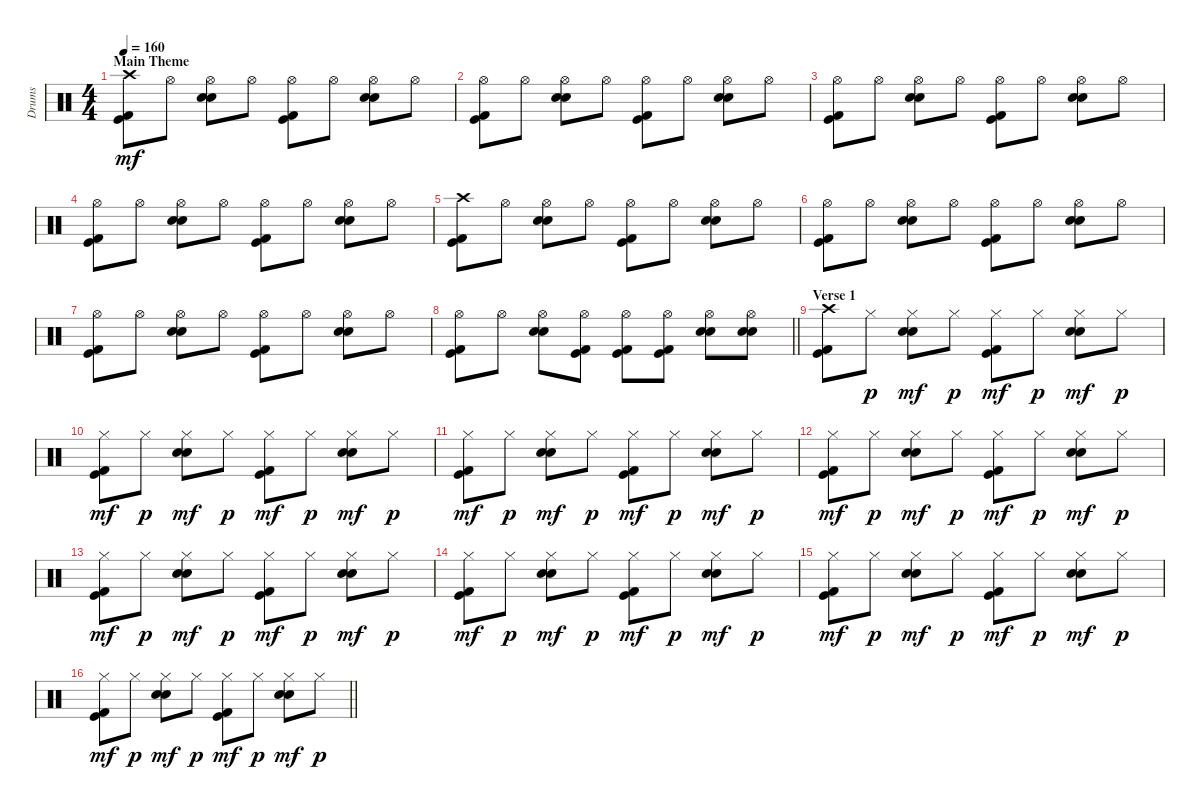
\track ("Drums" "Drums") {instrument percussion}
\staff {score}
\articulation defaults
\ts (4 4)
\section ("" "Main Theme")
\tempo 160
\clef neutral
\ks c
("Crash high (hit)" "Kick (hit) 2" "Kick (hit)").8{dy mf} "Hi-Hat (open)".8 ("Hi-Hat (open)" "Snare (hit) 2" "Electric Snare (hit)").8 "Hi-Hat (open)".8 ("Hi-Hat (open)" "Kick (hit) 2" "Kick (hit)").8 "Hi-Hat (open)".8 ("Hi-Hat (open)" "Snare (hit) 2" "Electric Snare (hit)").8 "Hi-Hat (open)".8 |
("Hi-Hat (open)" "Kick (hit) 2" "Kick (hit)").8 "Hi-Hat (open)".8 ("Hi-Hat (open)" "Snare (hit) 2" "Electric Snare (hit)").8 "Hi-Hat (open)".8 ("Hi-Hat (open)" "Kick (hit) 2" "Kick (hit)").8 "Hi-Hat (open)".8 ("Hi-Hat (open)" "Snare (hit) 2" "Electric Snare (hit)").8 "Hi-Hat (open)".8 |
("Hi-Hat (open)" "Kick (hit) 2" "Kick (hit)").8 "Hi-Hat (open)".8 ("Hi-Hat (open)" "Snare (hit) 2" "Electric Snare (hit)").8 "Hi-Hat (open)".8 ("Hi-Hat (open)" "Kick (hit) 2" "Kick (hit)").8 "Hi-Hat (open)".8 ("Hi-Hat (open)" "Snare (hit) 2" "Electric Snare (hit)").8 "Hi-Hat (open)".8 |
("Hi-Hat (open)" "Kick (hit) 2" "Kick (hit)").8 "Hi-Hat (open)".8 ("Hi-Hat (open)" "Snare (hit) 2" "Electric Snare (hit)").8 "Hi-Hat (open)".8 ("Hi-Hat (open)" "Kick (hit) 2" "Kick (hit)").8 "Hi-Hat (open)".8 ("Hi-Hat (open)" "Snare (hit) 2" "Electric Snare (hit)").8 "Hi-Hat (open)".8 |
("Crash high (hit)" "Kick (hit) 2" "Kick (hit)").8 "Hi-Hat (open)".8 ("Hi-Hat (open)" "Snare (hit) 2" "Electric Snare (hit)").8 "Hi-Hat (open)".8 ("Hi-Hat (open)" "Kick (hit) 2" "Kick (hit)").8 "Hi-Hat (open)".8 ("Hi-Hat (open)" "Snare (hit) 2" "Electric Snare (hit)").8 "Hi-Hat (open)".8 |
("Hi-Hat (open)" "Kick (hit) 2" "Kick (hit)").8 "Hi-Hat (open)".8 ("Hi-Hat (open)" "Snare (hit) 2" "Electric Snare (hit)").8 "Hi-Hat (open)".8 ("Hi-Hat (open)" "Kick (hit) 2" "Kick (hit)").8 "Hi-Hat (open)".8 ("Hi-Hat (open)" "Snare (hit) 2" "Electric Snare (hit)").8 "Hi-Hat (open)".8 |
("Hi-Hat (open)" "Kick (hit) 2" "Kick (hit)").8 "Hi-Hat (open)".8 ("Hi-Hat (open)" "Snare (hit) 2" "Electric Snare (hit)").8 "Hi-Hat (open)".8 ("Hi-Hat (open)" "Kick (hit) 2" "Kick (hit)").8 "Hi-Hat (open)".8 ("Hi-Hat (open)" "Snare (hit) 2" "Electric Snare (hit)").8 "Hi-Hat (open)".8 |
\barLineRight lightlight
("Hi-Hat (open)" "Kick (hit) 2" "Kick (hit)").8 "Hi-Hat (open)".8 ("Hi-Hat (open)" "Snare (hit) 2" "Electric Snare (hit)").8 ("Hi-Hat (open)" "Kick (hit) 2" "Kick (hit)").8 ("Hi-Hat (open)" "Kick (hit) 2" "Kick (hit)").8 ("Hi-Hat (open)" "Kick (hit) 2" "Kick (hit)").8 ("Hi-Hat (open)" "Snare (hit) 2" "Electric Snare (hit)").8 ("Hi-Hat (open)" "Snare (hit) 2" "Electric Snare (hit)").8 |
\section ("" "Verse 1")
("Crash high (hit)" "Kick (hit) 2" "Kick (hit)").8 "Hi-Hat (closed)".8{dy p} ("Hi-Hat (closed)" "Snare (hit) 2" "Electric Snare (hit)").8{dy mf} "Hi-Hat (closed)".8{dy p} ("Hi-Hat (closed)" "Kick (hit) 2" "Kick (hit)").8{dy mf} "Hi-Hat (closed)".8{dy p} ("Hi-Hat (closed)" "Snare (hit) 2" "Electric Snare (hit)").8{dy mf} "Hi-Hat (closed)".8{dy p} |
("Hi-Hat (closed)" "Kick (hit) 2" "Kick (hit)").8{dy mf} "Hi-Hat (closed)".8{dy p} ("Hi-Hat (closed)" "Snare (hit) 2" "Electric Snare (hit)").8{dy mf} "Hi-Hat (closed)".8{dy p} ("Hi-Hat (closed)" "Kick (hit) 2" "Kick (hit)").8{dy mf} "Hi-Hat (closed)".8{dy p} ("Hi-Hat (closed)" "Snare (hit) 2" "Electric Snare (hit)").8{dy mf} "Hi-Hat (closed)".8{dy p} |
("Hi-Hat (closed)" "Kick (hit) 2" "Kick (hit)").8{dy mf} "Hi-Hat (closed)".8{dy p} ("Hi-Hat (closed)" "Snare (hit) 2" "Electric Snare (hit)").8{dy mf} "Hi-Hat (closed)".8{dy p} ("Hi-Hat (closed)" "Kick (hit) 2" "Kick (hit)").8{dy mf} "Hi-Hat (closed)".8{dy p} ("Hi-Hat (closed)" "Snare (hit) 2" "Electric Snare (hit)").8{dy mf} "Hi-Hat (closed)".8{dy p} |
("Hi-Hat (closed)" "Kick (hit) 2" "Kick (hit)").8{dy mf} "Hi-Hat (closed)".8{dy p} ("Hi-Hat (closed)" "Snare (hit) 2" "Electric Snare (hit)").8{dy mf} "Hi-Hat (closed)".8{dy p} ("Hi-Hat (closed)" "Kick (hit) 2" "Kick (hit)").8{dy mf} "Hi-Hat (closed)".8{dy p} ("Hi-Hat (closed)" "Snare (hit) 2" "Electric Snare (hit)").8{dy mf} "Hi-Hat (closed)".8{dy p} |
("Hi-Hat (closed)" "Kick (hit) 2" "Kick (hit)").8{dy mf} "Hi-Hat (closed)".8{dy p} ("Hi-Hat (closed)" "Snare (hit) 2" "Electric Snare (hit)").8{dy mf} "Hi-Hat (closed)".8{dy p} ("Hi-Hat (closed)" "Kick (hit) 2" "Kick (hit)").8{dy mf} "Hi-Hat (closed)".8{dy p} ("Hi-Hat (closed)" "Snare (hit) 2" "Electric Snare (hit)").8{dy mf} "Hi-Hat (closed)".8{dy p} |
("Hi-Hat (closed)" "Kick (hit) 2" "Kick (hit)").8{dy mf} "Hi-Hat (closed)".8{dy p} ("Hi-Hat (closed)" "Snare (hit) 2" "Electric Snare (hit)").8{dy mf} "Hi-Hat (closed)".8{dy p} ("Hi-Hat (closed)" "Kick (hit) 2" "Kick (hit)").8{dy mf} "Hi-Hat (closed)".8{dy p} ("Hi-Hat (closed)" "Snare (hit) 2" "Electric Snare (hit)").8{dy mf} "Hi-Hat (closed)".8{dy p} |
("Hi-Hat (closed)" "Kick (hit) 2" "Kick (hit)").8{dy mf} "Hi-Hat (closed)".8{dy p} ("Hi-Hat (closed)" "Snare (hit) 2" "Electric Snare (hit)").8{dy mf} "Hi-Hat (closed)".8{dy p} ("Hi-Hat (closed)" "Kick (hit) 2" "Kick (hit)").8{dy mf} "Hi-Hat (closed)".8{dy p} ("Hi-Hat (closed)" "Snare (hit) 2" "Electric Snare (hit)").8{dy mf} "Hi-Hat (closed)".8{dy p} |
\barLineRight lightlight
("Hi-Hat (closed)" "Kick (hit) 2" "Kick (hit)").8{dy mf} "Hi-Hat (closed)".8{dy p} ("Hi-Hat (closed)" "Snare (hit) 2" "Electric Snare (hit)").8{dy mf} "Hi-Hat (closed)".8{dy p} ("Hi-Hat (closed)" "Kick (hit) 2" "Kick (hit)").8{dy mf} "Hi-Hat (closed)".8{dy p} ("Hi-Hat (closed)" "Snare (hit) 2" "Electric Snare (hit)").8{dy mf} "Hi-Hat (closed)".8{dy p}
